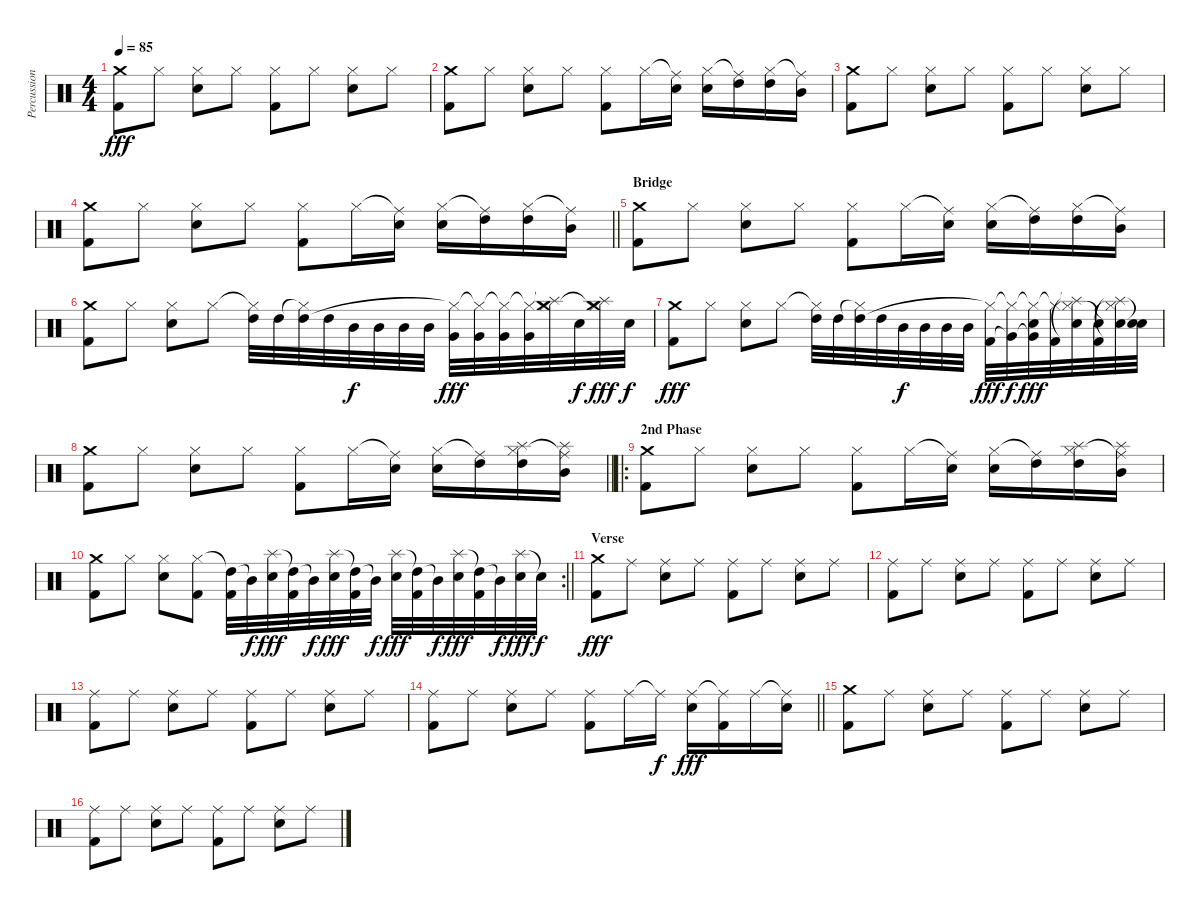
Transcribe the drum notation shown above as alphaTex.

\track ("Percussion" "Percussion") {instrument percussion}
\staff {score}
\articulation defaults
\ts (4 4)
\tempo 85
\clef neutral
\ks c
("Crash medium (hit)" "Kick (hit) 2").8{dy fff} "Hi-Hat (closed)".8 ("Hi-Hat (closed)" "Snare (hit) 2").8 "Hi-Hat (closed)".8 ("Hi-Hat (closed)" "Kick (hit) 2").8 "Hi-Hat (closed)".8 ("Hi-Hat (closed)" "Snare (hit) 2").8 "Hi-Hat (closed)".8 |
("Crash medium (hit)" "Kick (hit) 2").8 "Hi-Hat (closed)".8 ("Hi-Hat (closed)" "Snare (hit) 2").8 "Hi-Hat (closed)".8 ("Hi-Hat (closed)" "Kick (hit) 2").8 "Hi-Hat (closed)".16 ("Ride (middle)"{t} "Snare (hit) 2").16 ("Hi-Hat (closed)" "Snare (hit) 2").16 ("Ride (middle)"{t} "High Tom (hit)").16 ("Hi-Hat (closed)" "High Tom (hit)").16 ("Ride (middle)"{t} "Mid Tom (hit)").16 |
("Crash medium (hit)" "Kick (hit) 2").8 "Hi-Hat (closed)".8 ("Hi-Hat (closed)" "Snare (hit) 2").8 "Hi-Hat (closed)".8 ("Hi-Hat (closed)" "Kick (hit) 2").8 "Hi-Hat (closed)".8 ("Hi-Hat (closed)" "Snare (hit) 2").8 "Hi-Hat (closed)".8 |
\barLineRight lightlight
("Crash medium (hit)" "Kick (hit) 2").8 "Hi-Hat (closed)".8 ("Hi-Hat (closed)" "Snare (hit) 2").8 "Hi-Hat (closed)".8 ("Hi-Hat (closed)" "Kick (hit) 2").8 "Hi-Hat (closed)".16 ("Ride (middle)"{t} "Snare (hit) 2").16 ("Hi-Hat (closed)" "Snare (hit) 2").16 ("Ride (middle)"{t} "High Tom (hit)").16 ("Hi-Hat (closed)" "High Tom (hit)").16 ("Ride (middle)"{t} "Mid Tom (hit)").16 |
\section ("" "Bridge")
("Crash medium (hit)" "Kick (hit) 2").8 "Hi-Hat (closed)".8 ("Hi-Hat (closed)" "Snare (hit) 2").8 "Hi-Hat (closed)".8 ("Hi-Hat (closed)" "Kick (hit) 2").8 "Hi-Hat (closed)".16 ("Ride (middle)"{t} "Snare (hit) 2").16 ("Hi-Hat (closed)" "Snare (hit) 2").16 ("Ride (middle)"{t} "High Tom (hit)").16 ("Hi-Hat (closed)" "High Tom (hit)").16 ("Ride (middle)"{t} "Mid Tom (hit)").16 |
("Crash medium (hit)" "Kick (hit) 2").8 "Hi-Hat (closed)".8 ("Hi-Hat (closed)" "Snare (hit) 2").8 "Hi-Hat (closed)".8 ("Hi-Hat (closed)"{t} "High Tom (hit)").32 "High Tom (hit)".32 ("Hi-Hat (closed)"{t} "High Tom (hit)").32 "High Tom (hit)".32 "Mid Tom (hit)".32{dy f} "Mid Tom (hit)".32 "Mid Tom (hit)".32 "Mid Tom (hit)".32 ("Very Low Tom (hit)" "Hi-Hat (closed)"{t}).32{dy fff} ("Very Low Tom (hit)" "Hi-Hat (closed)"{t}).32 ("Very Low Tom (hit)" "Hi-Hat (closed)"{t}).32 ("Very Low Tom (hit)" "Hi-Hat (closed)"{t}).32 ("Splash (hit)" "Hi-Hat (closed)"{t} "Crash medium (hit)").32 "Snare (hit) 2".32{dy f} ("Splash (hit)" "Hi-Hat (closed)"{t} "Crash medium (hit)").32{dy fff} "Snare (hit) 2".32{dy f} |
("Crash medium (hit)" "Kick (hit) 2").8{dy fff} "Hi-Hat (closed)".8 ("Hi-Hat (closed)" "Snare (hit) 2").8 "Hi-Hat (closed)".8 ("Hi-Hat (closed)"{t} "High Tom (hit)").32 "High Tom (hit)".32 ("Hi-Hat (closed)"{t} "High Tom (hit)").32 "High Tom (hit)".32 "Mid Tom (hit)".32{dy f} "Mid Tom (hit)".32 "Mid Tom (hit)".32 "Mid Tom (hit)".32 ("Kick (hit) 2" "Hi-Hat (closed)"{t}).32{dy fff} ("Very Low Tom (hit)"{t} "Hi-Hat (closed)"{t}).32{dy f} ("Very Low Tom (hit)"{t} "Hi-Hat (closed)"{t} "Snare (hit) 2").32{dy fff} ("Kick (hit) 2" "Hi-Hat (closed)"{t}).32 ("Splash (hit)"{t} "Hi-Hat (closed)"{t} "Snare (hit) 2").32 ("Kick (hit) 2" "Snare (hit) 2"{t}).32 ("Splash (hit)"{t} "Hi-Hat (closed)"{t} "Snare (hit) 2").32 ("Snare (hit)"{t} "Snare (hit) 2").32 |
\barLineRight lightlight
("Crash medium (hit)" "Kick (hit) 2").8 "Hi-Hat (closed)".8 ("Hi-Hat (closed)" "Snare (hit) 2").8 "Hi-Hat (closed)".8 ("Hi-Hat (closed)" "Kick (hit) 2").8 "Hi-Hat (closed)".16 ("Ride (middle)"{t} "Snare (hit) 2").16 ("Hi-Hat (closed)" "Snare (hit) 2").16 ("Ride (middle)"{t} "High Tom (hit)").16 ("Splash (hit)" "Hi-Hat (closed)" "High Tom (hit)").16 ("Splash (hit)" "Ride (middle)"{t} "Mid Tom (hit)").16 |
\ro
\section ("" "2nd Phase")
("Crash medium (hit)" "Kick (hit) 2").8 "Hi-Hat (closed)".8 ("Hi-Hat (closed)" "Snare (hit) 2").8 "Hi-Hat (closed)".8 ("Hi-Hat (closed)" "Kick (hit) 2").8 "Hi-Hat (closed)".16 ("Ride (middle)"{t} "Snare (hit) 2").16 ("Hi-Hat (closed)" "Snare (hit) 2").16 ("Ride (middle)"{t} "High Tom (hit)").16 ("Splash (hit)" "Hi-Hat (closed)" "High Tom (hit)").16 ("Splash (hit)" "Ride (middle)"{t} "Mid Tom (hit)").16 |
\rc 2
\barLineRight lightlight
("Crash medium (hit)" "Kick (hit) 2").8 "Hi-Hat (closed)".8 ("Hi-Hat (closed)" "Snare (hit) 2").8 ("Hi-Hat (closed)" "Kick (hit) 2").8 ("High Tom (hit)"{t} "Kick (hit) 2").32 "Mid Tom (hit)"{t}.32{dy f} ("Splash (hit)" "Snare (hit) 2").32{dy fff} ("High Tom (hit)"{t} "Kick (hit) 2").32 "Mid Tom (hit)"{t}.32{dy f} ("Splash (hit)" "Snare (hit) 2").32{dy fff} ("High Tom (hit)"{t} "Kick (hit) 2").32 "Mid Tom (hit)"{t}.32{dy f} ("Splash (hit)" "Snare (hit) 2").32{dy fff} ("High Tom (hit)"{t} "Kick (hit) 2").32 "Mid Tom (hit)"{t}.32{dy f} ("Splash (hit)" "Snare (hit) 2").32{dy fff} ("High Tom (hit)"{t} "Kick (hit) 2").32 "Mid Tom (hit)"{t}.32{dy f} ("Splash (hit)" "Snare (hit) 2").32{dy fff} "Snare (hit) 2"{t}.32{dy f} |
\section ("" "Verse")
("Crash medium (hit)" "Kick (hit) 2").8{dy fff} "Ride (middle)".8 ("Ride (middle)" "Snare (hit) 2").8 "Ride (middle)".8 ("Ride (middle)" "Kick (hit) 2").8 "Ride (middle)".8 ("Ride (middle)" "Snare (hit) 2").8 "Ride (middle)".8 |
("Ride (middle)" "Kick (hit) 2").8 "Ride (middle)".8 ("Ride (middle)" "Snare (hit) 2").8 "Ride (middle)".8 ("Ride (middle)" "Kick (hit) 2").8 "Ride (middle)".8 ("Ride (middle)" "Snare (hit) 2").8 "Ride (middle)".8 |
("Ride (middle)" "Kick (hit) 2").8 "Ride (middle)".8 ("Ride (middle)" "Snare (hit) 2").8 "Ride (middle)".8 ("Ride (middle)" "Kick (hit) 2").8 "Ride (middle)".8 ("Ride (middle)" "Snare (hit) 2").8 "Ride (middle)".8 |
\barLineRight lightlight
("Ride (middle)" "Kick (hit) 2").8 "Ride (middle)".8 ("Ride (middle)" "Snare (hit) 2").8 "Ride (middle)".8 ("Ride (middle)" "Kick (hit) 2").8 "Ride (middle)".16 "Ride (middle)"{t}.16{dy f} ("Ride (middle)" "Snare (hit) 2").16{dy fff} ("Ride (middle)"{t} "Kick (hit) 2").16 "Ride (middle)".16 ("Ride (middle)"{t} "Snare (hit) 2").16 |
("Crash medium (hit)" "Kick (hit) 2").8 "Ride (middle)".8 ("Ride (middle)" "Snare (hit) 2").8 "Ride (middle)".8 ("Ride (middle)" "Kick (hit) 2").8 "Ride (middle)".8 ("Ride (middle)" "Snare (hit) 2").8 "Ride (middle)".8 |
("Ride (middle)" "Kick (hit) 2").8 "Ride (middle)".8 ("Ride (middle)" "Snare (hit) 2").8 "Ride (middle)".8 ("Ride (middle)" "Kick (hit) 2").8 "Ride (middle)".8 ("Ride (middle)" "Snare (hit) 2").8 "Ride (middle)".8
